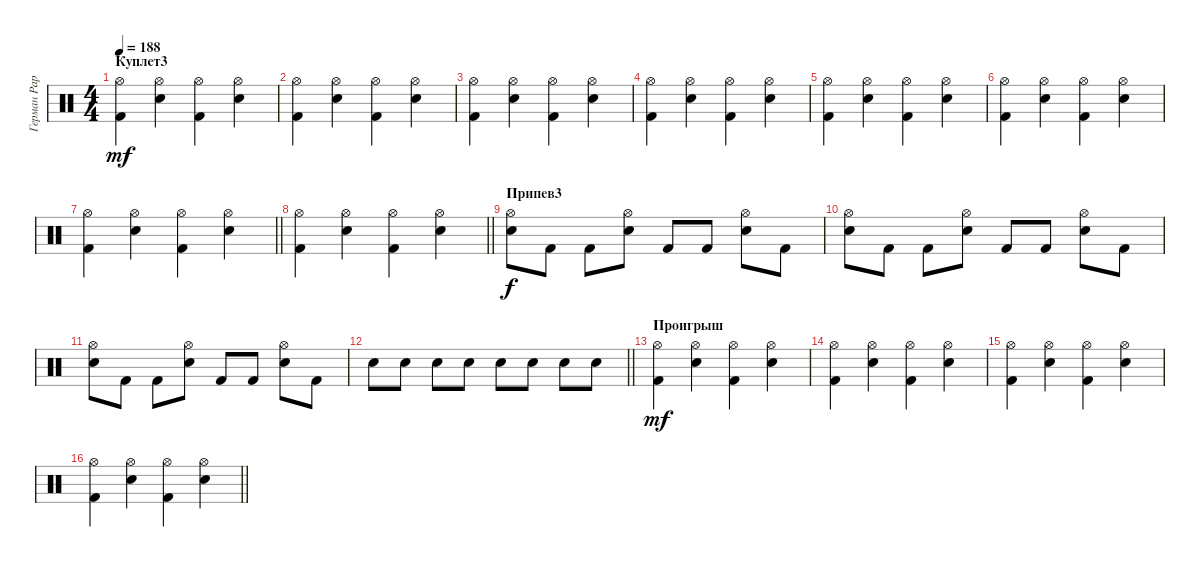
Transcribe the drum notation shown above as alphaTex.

\track ("Герман Раребелл, ударные" "Герман Рар") {instrument percussion}
\staff {score}
\articulation defaults
\ts (4 4)
\section ("" "Куплет3")
\tempo 188
\clef neutral
\ks c
("Hi-Hat (open)" "Kick (hit) 2").4{dy mf} ("Hi-Hat (open)" "Snare (hit) 2").4 ("Hi-Hat (open)" "Kick (hit) 2").4 ("Hi-Hat (open)" "Snare (hit) 2").4 |
("Hi-Hat (open)" "Kick (hit) 2").4 ("Hi-Hat (open)" "Snare (hit) 2").4 ("Hi-Hat (open)" "Kick (hit) 2").4 ("Hi-Hat (open)" "Snare (hit) 2").4 |
("Hi-Hat (open)" "Kick (hit) 2").4 ("Hi-Hat (open)" "Snare (hit) 2").4 ("Hi-Hat (open)" "Kick (hit) 2").4 ("Hi-Hat (open)" "Snare (hit) 2").4 |
("Hi-Hat (open)" "Kick (hit) 2").4 ("Hi-Hat (open)" "Snare (hit) 2").4 ("Hi-Hat (open)" "Kick (hit) 2").4 ("Hi-Hat (open)" "Snare (hit) 2").4 |
("Hi-Hat (open)" "Kick (hit) 2").4 ("Hi-Hat (open)" "Snare (hit) 2").4 ("Hi-Hat (open)" "Kick (hit) 2").4 ("Hi-Hat (open)" "Snare (hit) 2").4 |
("Hi-Hat (open)" "Kick (hit) 2").4 ("Hi-Hat (open)" "Snare (hit) 2").4 ("Hi-Hat (open)" "Kick (hit) 2").4 ("Hi-Hat (open)" "Snare (hit) 2").4 |
\barLineRight lightlight
("Hi-Hat (open)" "Kick (hit) 2").4 ("Hi-Hat (open)" "Snare (hit) 2").4 ("Hi-Hat (open)" "Kick (hit) 2").4 ("Hi-Hat (open)" "Snare (hit) 2").4 |
\barLineRight lightlight
("Hi-Hat (open)" "Kick (hit) 2").4 ("Hi-Hat (open)" "Snare (hit) 2").4 ("Hi-Hat (open)" "Kick (hit) 2").4 ("Hi-Hat (open)" "Snare (hit) 2").4 |
\section ("" "Припев3")
("Snare (hit) 2" "Hi-Hat (open)").8{dy f} "Kick (hit) 2".8 "Kick (hit) 2".8 ("Snare (hit) 2" "Hi-Hat (open)").8 "Kick (hit) 2".8 "Kick (hit) 2".8 ("Snare (hit) 2" "Hi-Hat (open)").8 "Kick (hit) 2".8 |
("Snare (hit) 2" "Hi-Hat (open)").8 "Kick (hit) 2".8 "Kick (hit) 2".8 ("Snare (hit) 2" "Hi-Hat (open)").8 "Kick (hit) 2".8 "Kick (hit) 2".8 ("Snare (hit) 2" "Hi-Hat (open)").8 "Kick (hit) 2".8 |
("Snare (hit) 2" "Hi-Hat (open)").8 "Kick (hit) 2".8 "Kick (hit) 2".8 ("Snare (hit) 2" "Hi-Hat (open)").8 "Kick (hit) 2".8 "Kick (hit) 2".8 ("Snare (hit) 2" "Hi-Hat (open)").8 "Kick (hit) 2".8 |
\barLineRight lightlight "Snare (hit) 2".8 "Snare (hit) 2".8 "Snare (hit) 2".8 "Snare (hit) 2".8 "Snare (hit) 2".8 "Snare (hit) 2".8 "Snare (hit) 2".8 "Snare (hit) 2".8
|
\section ("" "Проигрыш")
("Hi-Hat (open)" "Kick (hit) 2").4{dy mf} ("Hi-Hat (open)" "Snare (hit) 2").4 ("Hi-Hat (open)" "Kick (hit) 2").4 ("Hi-Hat (open)" "Snare (hit) 2").4 |
("Hi-Hat (open)" "Kick (hit) 2").4 ("Hi-Hat (open)" "Snare (hit) 2").4 ("Hi-Hat (open)" "Kick (hit) 2").4 ("Hi-Hat (open)" "Snare (hit) 2").4 |
("Hi-Hat (open)" "Kick (hit) 2").4 ("Hi-Hat (open)" "Snare (hit) 2").4 ("Hi-Hat (open)" "Kick (hit) 2").4 ("Hi-Hat (open)" "Snare (hit) 2").4 |
\barLineRight lightlight
("Hi-Hat (open)" "Kick (hit) 2").4 ("Hi-Hat (open)" "Snare (hit) 2").4 ("Hi-Hat (open)" "Kick (hit) 2").4 ("Hi-Hat (open)" "Snare (hit) 2").4
